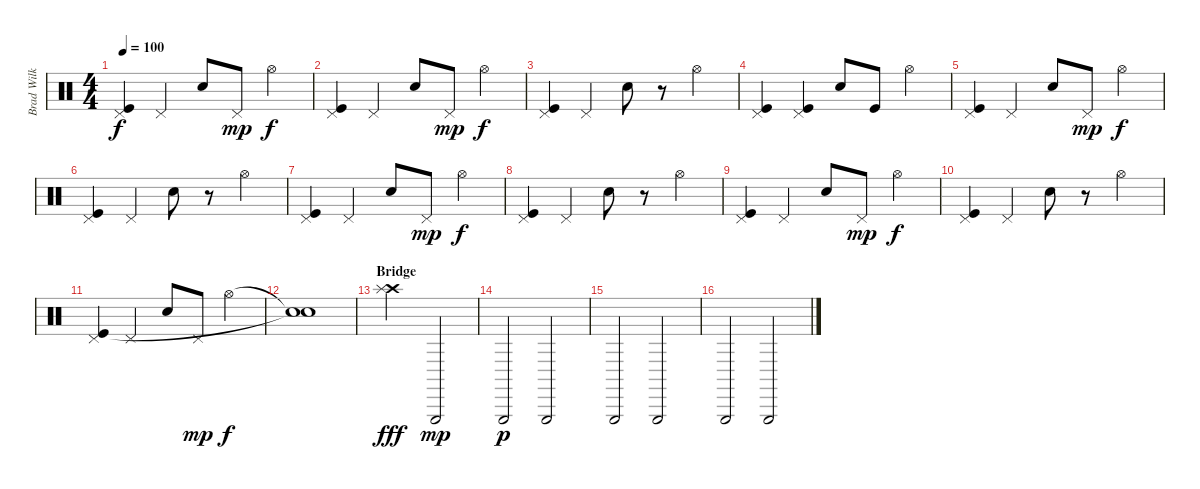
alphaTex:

\track ("Brad Wilk - Drums" "Brad Wilk ") {instrument percussion}
\staff {score}
\articulation defaults
\ts (4 4)
\tempo 100
\clef neutral
\ks c
("Pedal Hi-Hat (hit)" "Kick (hit)").4{dy f} "Pedal Hi-Hat (hit)".4 "Electric Snare (hit)".8 "Pedal Hi-Hat (hit)".8{dy mp} "Hi-Hat (open)".4{dy f} |
("Pedal Hi-Hat (hit)" "Kick (hit)").4 "Pedal Hi-Hat (hit)".4 "Electric Snare (hit)".8 "Pedal Hi-Hat (hit)".8{dy mp} "Hi-Hat (open)".4{dy f} |
("Pedal Hi-Hat (hit)" "Kick (hit)").4 "Pedal Hi-Hat (hit)".4 "Electric Snare (hit)".8 r.8 "Hi-Hat (open)".4 |
("Pedal Hi-Hat (hit)" "Kick (hit)").4 ("Pedal Hi-Hat (hit)" "Kick (hit)").4 "Electric Snare (hit)".8 "Kick (hit)".8 "Hi-Hat (open)".4 |
("Pedal Hi-Hat (hit)" "Kick (hit)").4 "Pedal Hi-Hat (hit)".4 "Electric Snare (hit)".8 "Pedal Hi-Hat (hit)".8{dy mp} "Hi-Hat (open)".4{dy f} |
("Pedal Hi-Hat (hit)" "Kick (hit)").4 "Pedal Hi-Hat (hit)".4 "Electric Snare (hit)".8 r.8 "Hi-Hat (open)".4 |
("Pedal Hi-Hat (hit)" "Kick (hit)").4 "Pedal Hi-Hat (hit)".4 "Electric Snare (hit)".8 "Pedal Hi-Hat (hit)".8{dy mp} "Hi-Hat (open)".4{dy f} |
("Pedal Hi-Hat (hit)" "Kick (hit)").4 "Pedal Hi-Hat (hit)".4 "Electric Snare (hit)".8 r.8 "Hi-Hat (open)".4 |
("Pedal Hi-Hat (hit)" "Kick (hit)").4 "Pedal Hi-Hat (hit)".4 "Electric Snare (hit)".8 "Pedal Hi-Hat (hit)".8{dy mp} "Hi-Hat (open)".4{dy f} |
("Pedal Hi-Hat (hit)" "Kick (hit)").4 "Pedal Hi-Hat (hit)".4 "Electric Snare (hit)".8 r.8 "Hi-Hat (open)".4 |
("Pedal Hi-Hat (hit)" "Kick (hit)").4 "Pedal Hi-Hat (hit)".4 "Electric Snare (hit)".8 "Pedal Hi-Hat (hit)".8{dy mp} "Hi-Hat (open)".4{dy f} |
("Snare (hit)"{t} "Snare (hit)"{t}).1 |
\section ("" "Bridge")
("Crash high (hit)" "Splash (hit)").2{dy fff} "Triangle (hit)".2{dy mp} |
"Triangle (hit)".2{dy p} "Triangle (hit)".2 |
"Triangle (hit)".2 "Triangle (hit)".2 |
"Triangle (hit)".2 "Triangle (hit)".2
